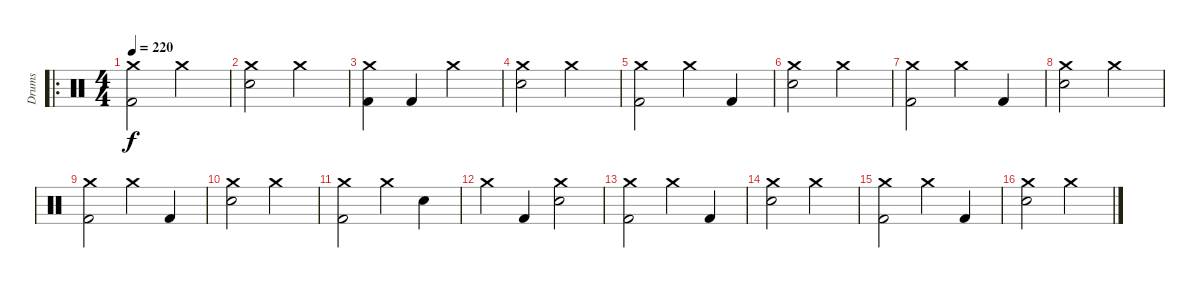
\track ("Drums" "Drums") {instrument percussion}
\staff {score}
\articulation defaults
\ro
\ts (4 4)
\tempo 220
\clef neutral
\ks c
("Crash medium (hit)" "Kick (hit) 2").2{dy f} "Crash medium (hit)".2 |
("Crash medium (hit)" "Electric Snare (hit)").2 "Crash medium (hit)".2 |
("Crash medium (hit)" "Kick (hit) 2").4 "Kick (hit) 2".4 "Crash medium (hit)".2 |
("Crash medium (hit)" "Electric Snare (hit)").2 "Crash medium (hit)".2 |
("Crash medium (hit)" "Kick (hit) 2").2 "Crash medium (hit)".4 "Kick (hit) 2".4 |
("Crash medium (hit)" "Electric Snare (hit)").2 "Crash medium (hit)".2 |
("Crash medium (hit)" "Kick (hit) 2").2 "Crash medium (hit)".4 "Kick (hit) 2".4 |
("Crash medium (hit)" "Electric Snare (hit)").2 "Crash medium (hit)".2 |
("Crash medium (hit)" "Kick (hit) 2").2 "Crash medium (hit)".4 "Kick (hit) 2".4 |
("Crash medium (hit)" "Electric Snare (hit)").2 "Crash medium (hit)".2 |
("Crash medium (hit)" "Kick (hit) 2").2 "Crash medium (hit)".4 "Electric Snare (hit)".4 |
"Crash medium (hit)".4 "Kick (hit) 2".4 ("Crash medium (hit)" "Electric Snare (hit)").2 |
("Crash medium (hit)" "Kick (hit) 2").2 "Crash medium (hit)".4 "Kick (hit) 2".4 |
("Crash medium (hit)" "Electric Snare (hit)").2 "Crash medium (hit)".2 |
("Crash medium (hit)" "Kick (hit) 2").2 "Crash medium (hit)".4 "Kick (hit) 2".4 |
("Crash medium (hit)" "Electric Snare (hit)").2 "Crash medium (hit)".2
